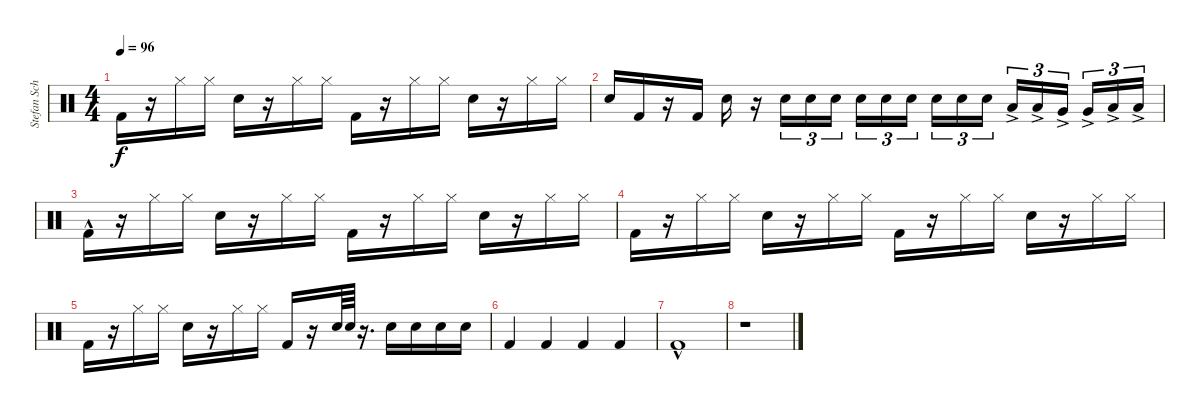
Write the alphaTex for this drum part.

\track ("Stefan Schwarzmann" "Stefan Sch") {instrument percussion}
\staff {score}
\articulation defaults
\ts (4 4)
\tempo 96
\clef neutral
\ks c "Kick (hit) 2".16{dy f}
r.16 "Hi-Hat (closed)".16 "Hi-Hat (closed)".16 "Snare (hit) 2".16 r.16 "Hi-Hat (closed)".16 "Hi-Hat (closed)".16 "Kick (hit) 2".16 r.16 "Hi-Hat (closed)".16 "Hi-Hat (closed)".16 "Snare (hit) 2".16 r.16 "Hi-Hat (closed)".16 "Hi-Hat (closed)".16 |
"Snare (hit) 2".16 "Kick (hit) 2".16 r.16 "Kick (hit) 2".16 "Snare (hit) 2".16 r.16 "Snare (hit) 2".16{tu (3 2)} "Snare (hit) 2".16{tu (3 2)} "Snare (hit) 2".16{tu (3 2)} "Snare (hit) 2".16{tu (3 2)} "Snare (hit) 2".16{tu (3 2)} "Snare (hit) 2".16{tu (3 2) beam splitsecondary} "Snare (hit) 2".16{tu (3 2)} "Snare (hit) 2".16{tu (3 2)} "Snare (hit) 2".16{tu (3 2)} "Low Tom (hit)"{ac}.16{tu (3 2)} "Low Tom (hit)"{ac}.16{tu (3 2)} "Very Low Tom (hit)"{ac}.16{tu (3 2) beam splitsecondary} "Very Low Tom (hit)"{ac}.16{tu (3 2)} "Low Floor Tom (hit)"{ac}.16{tu (3 2)} "Low Floor Tom (hit)"{ac}.16{tu (3 2)} |
"Kick (hit) 2"{hac}.16 r.16 "Hi-Hat (closed)".16 "Hi-Hat (closed)".16 "Snare (hit) 2".16 r.16 "Hi-Hat (closed)".16 "Hi-Hat (closed)".16 "Kick (hit) 2".16 r.16 "Hi-Hat (closed)".16 "Hi-Hat (closed)".16 "Snare (hit) 2".16 r.16 "Hi-Hat (closed)".16 "Hi-Hat (closed)".16 |
"Kick (hit) 2".16 r.16 "Hi-Hat (closed)".16 "Hi-Hat (closed)".16 "Snare (hit) 2".16 r.16 "Hi-Hat (closed)".16 "Hi-Hat (closed)".16 "Kick (hit) 2".16 r.16 "Hi-Hat (closed)".16 "Hi-Hat (closed)".16 "Snare (hit) 2".16 r.16 "Hi-Hat (closed)".16 "Hi-Hat (closed)".16 |
"Kick (hit) 2".16 r.16 "Hi-Hat (closed)".16 "Hi-Hat (closed)".16 "Snare (hit) 2".16 r.16 "Hi-Hat (closed)".16 "Hi-Hat (closed)".16 "Kick (hit) 2".16 r.16 "Snare (hit) 2".64 "Snare (hit) 2".64 r.16{d} "Snare (hit) 2".16 "Snare (hit) 2".16 "Snare (hit) 2".16 "Snare (hit) 2".16 |
"Kick (hit) 2".4 "Kick (hit) 2".4 "Kick (hit) 2".4 "Kick (hit) 2".4 |
"Kick (hit) 2"{hac}.1 |
r.1
